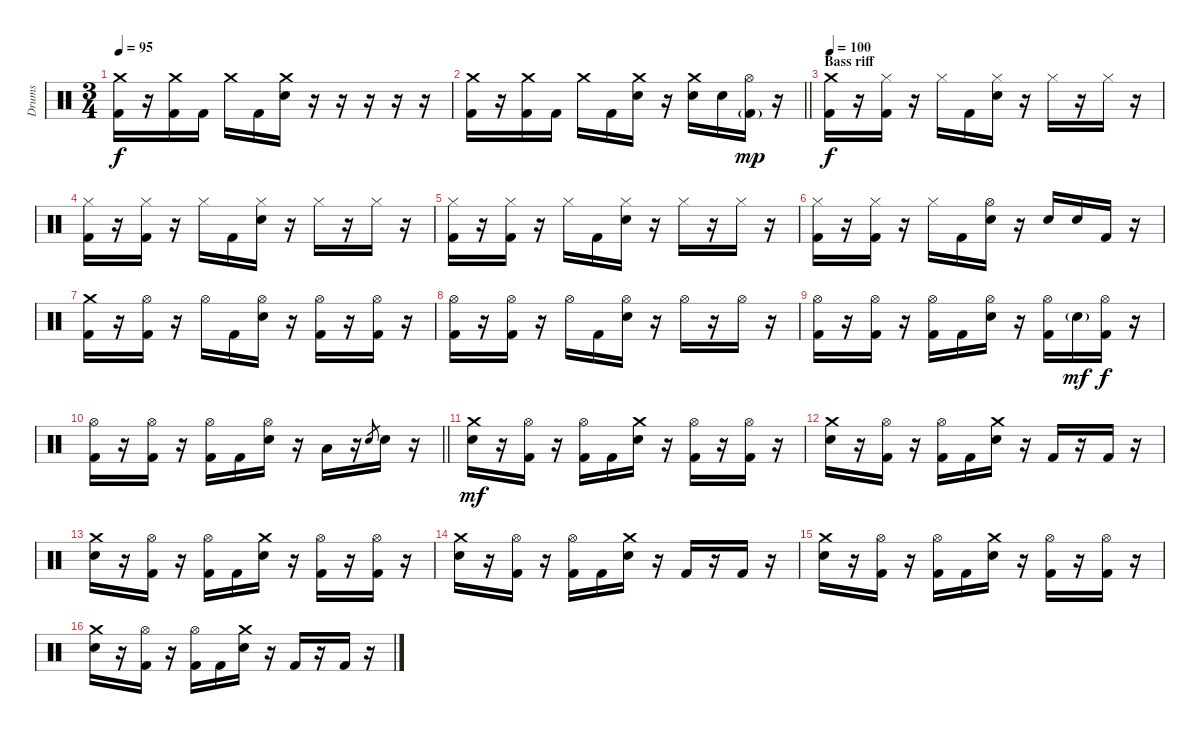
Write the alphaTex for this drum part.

\track ("Drums" "Drums") {instrument percussion}
\staff {score}
\articulation defaults
\ts (3 4)
\tempo 95
\clef neutral
\ks c
("Crash medium (hit)" "Kick (hit) 2").16{dy f} r.16 ("Crash medium (hit)" "Kick (hit) 2").16 "Kick (hit) 2".16 "Crash medium (hit)".16 "Kick (hit) 2".16 ("Crash medium (hit)" "Electric Snare (hit)").16 r.16 r.16 r.16 r.16 r.16 |
\barLineRight lightlight
("Crash medium (hit)" "Kick (hit) 2").16 r.16 ("Crash medium (hit)" "Kick (hit) 2").16 "Kick (hit) 2".16 "Crash medium (hit)".16 "Kick (hit) 2".16 ("Crash medium (hit)" "Electric Snare (hit)").16 r.16 ("Crash medium (hit)" "Electric Snare (hit)").16 "Electric Snare (hit)".16 ("Hi-Hat (open)" "Kick (hit) 2"{g}).16{dy mp} r.16 |
\section ("" "Bass riff")
\tempo 100
("Crash medium (hit)" "Kick (hit) 2").16{dy f} r.16 ("Hi-Hat (closed)" "Kick (hit) 2").16 r.16 "Hi-Hat (closed)".16 "Kick (hit) 2".16 ("Hi-Hat (closed)" "Electric Snare (hit)").16 r.16 "Hi-Hat (closed)".16 r.16 "Hi-Hat (closed)".16 r.16 |
("Hi-Hat (closed)" "Kick (hit) 2").16 r.16 ("Hi-Hat (closed)" "Kick (hit) 2").16 r.16 "Hi-Hat (closed)".16 "Kick (hit) 2".16 ("Hi-Hat (closed)" "Electric Snare (hit)").16 r.16 "Hi-Hat (closed)".16 r.16 "Hi-Hat (closed)".16 r.16 |
("Hi-Hat (closed)" "Kick (hit) 2").16 r.16 ("Hi-Hat (closed)" "Kick (hit) 2").16 r.16 "Hi-Hat (closed)".16 "Kick (hit) 2".16 ("Hi-Hat (closed)" "Electric Snare (hit)").16 r.16 "Hi-Hat (closed)".16 r.16 "Hi-Hat (closed)".16 r.16 |
("Hi-Hat (closed)" "Kick (hit) 2").16 r.16 ("Hi-Hat (closed)" "Kick (hit) 2").16 r.16 "Hi-Hat (closed)".16 "Kick (hit) 2".16 ("Hi-Hat (open)" "Electric Snare (hit)").16 r.16 "Electric Snare (hit)".16 "Electric Snare (hit)".16 "Kick (hit) 2".16 r.16 |
("Crash medium (hit)" "Kick (hit) 2").16 r.16 ("Hi-Hat (open)" "Kick (hit) 2").16 r.16 "Hi-Hat (open)".16 "Kick (hit) 2".16 ("Hi-Hat (open)" "Electric Snare (hit)").16 r.16 ("Hi-Hat (open)" "Kick (hit) 2").16 r.16 ("Hi-Hat (open)" "Kick (hit) 2").16 r.16 |
("Hi-Hat (open)" "Kick (hit) 2").16 r.16 ("Hi-Hat (open)" "Kick (hit) 2").16 r.16 "Hi-Hat (open)".16 "Kick (hit) 2".16 ("Hi-Hat (open)" "Electric Snare (hit)").16 r.16 "Hi-Hat (open)".16 r.16 "Hi-Hat (open)".16 r.16 |
("Hi-Hat (open)" "Kick (hit) 2").16 r.16 ("Hi-Hat (open)" "Kick (hit) 2").16 r.16 ("Hi-Hat (open)" "Kick (hit) 2").16 "Kick (hit) 2".16 ("Hi-Hat (open)" "Electric Snare (hit)").16 r.16 ("Hi-Hat (open)" "Kick (hit) 2").16 "Electric Snare (hit)"{g}.16{dy mf} ("Hi-Hat (open)" "Kick (hit) 2").16{dy f} r.16 |
\barLineRight lightlight
("Hi-Hat (open)" "Kick (hit) 2").16 r.16 ("Hi-Hat (open)" "Kick (hit) 2").16 r.16 ("Hi-Hat (open)" "Kick (hit) 2").16 "Kick (hit) 2".16 ("Hi-Hat (open)" "Electric Snare (hit)").16 r.16 "Low Tom (hit)".16 r.16 "Electric Snare (hit)".8{gr} "Electric Snare (hit)".16 r.16 |
\section ("" "")
("Crash medium (hit)" "Electric Snare (hit)").16{dy mf} r.16 ("Hi-Hat (open)" "Kick (hit) 2").16 r.16 ("Hi-Hat (open)" "Kick (hit) 2").16 "Kick (hit) 2".16 ("Crash medium (hit)" "Electric Snare (hit)").16 r.16 ("Hi-Hat (open)" "Kick (hit) 2").16 r.16 ("Hi-Hat (open)" "Kick (hit) 2").16 r.16 |
("Crash medium (hit)" "Electric Snare (hit)").16 r.16 ("Hi-Hat (open)" "Kick (hit) 2").16 r.16 ("Hi-Hat (open)" "Kick (hit) 2").16 "Kick (hit) 2".16 ("Crash medium (hit)" "Electric Snare (hit)").16 r.16 "Kick (hit) 2".16 r.16 "Kick (hit) 2".16 r.16 |
("Crash medium (hit)" "Electric Snare (hit)").16 r.16 ("Hi-Hat (open)" "Kick (hit) 2").16 r.16 ("Hi-Hat (open)" "Kick (hit) 2").16 "Kick (hit) 2".16 ("Crash medium (hit)" "Electric Snare (hit)").16 r.16 ("Hi-Hat (open)" "Kick (hit) 2").16 r.16 ("Hi-Hat (open)" "Kick (hit) 2").16 r.16 |
("Crash medium (hit)" "Electric Snare (hit)").16 r.16 ("Hi-Hat (open)" "Kick (hit) 2").16 r.16 ("Hi-Hat (open)" "Kick (hit) 2").16 "Kick (hit) 2".16 ("Crash medium (hit)" "Electric Snare (hit)").16 r.16 "Kick (hit) 2".16 r.16 "Kick (hit) 2".16 r.16 |
("Crash medium (hit)" "Electric Snare (hit)").16 r.16 ("Hi-Hat (open)" "Kick (hit) 2").16 r.16 ("Hi-Hat (open)" "Kick (hit) 2").16 "Kick (hit) 2".16 ("Crash medium (hit)" "Electric Snare (hit)").16 r.16 ("Hi-Hat (open)" "Kick (hit) 2").16 r.16 ("Hi-Hat (open)" "Kick (hit) 2").16 r.16 |
("Crash medium (hit)" "Electric Snare (hit)").16 r.16 ("Hi-Hat (open)" "Kick (hit) 2").16 r.16 ("Hi-Hat (open)" "Kick (hit) 2").16 "Kick (hit) 2".16 ("Crash medium (hit)" "Electric Snare (hit)").16 r.16 "Kick (hit) 2".16 r.16 "Kick (hit) 2".16 r.16
